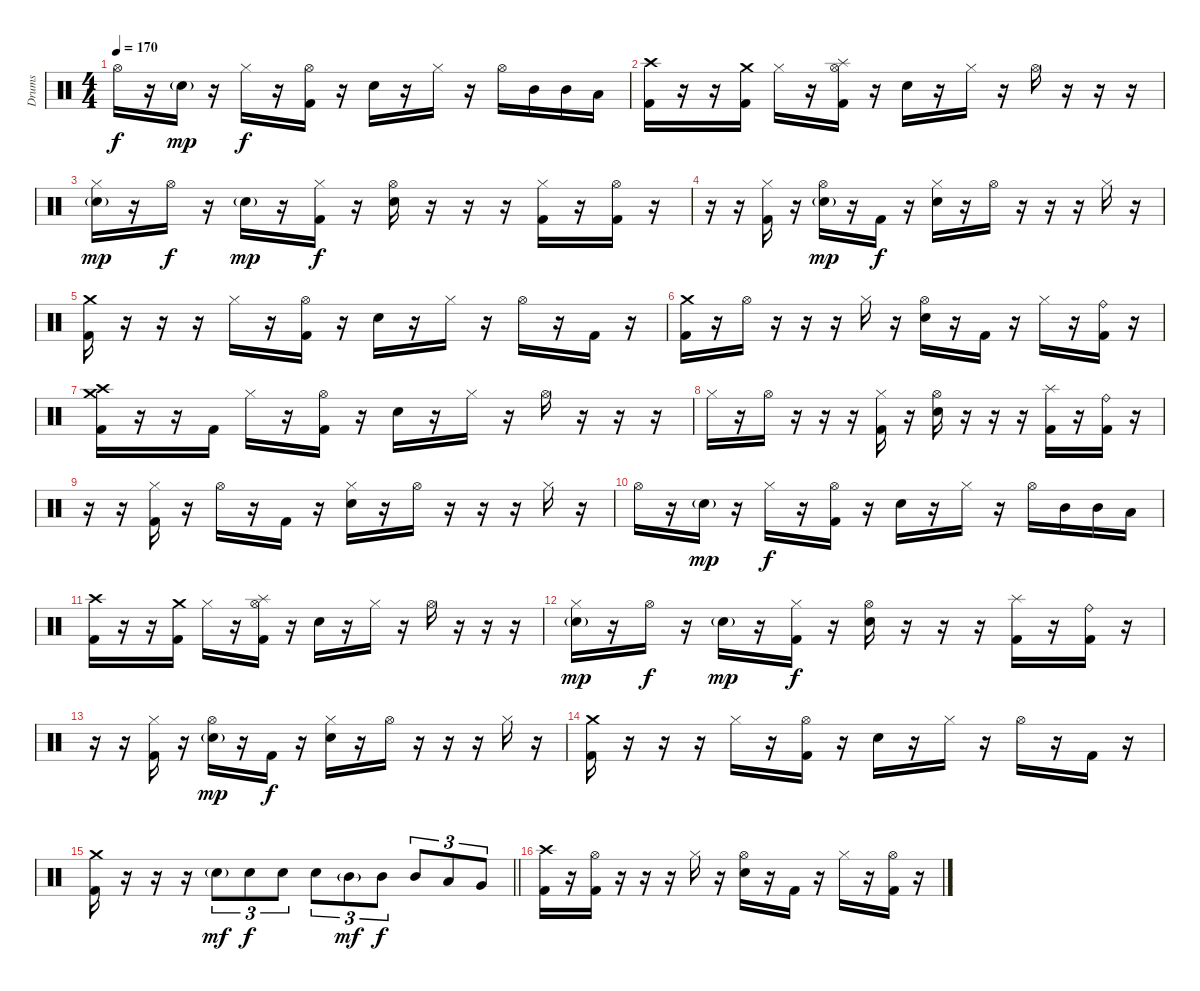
\track ("Drums" "Drums") {instrument percussion}
\staff {score}
\articulation defaults
\ts (4 4)
\tempo 170
\clef neutral
\ks c "Hi-Hat (open)".16{dy f}
r.16 "Electric Snare (hit)"{g}.16{dy mp} r.16 "Hi-Hat (closed)".16{dy f} r.16 ("Hi-Hat (open)" "Kick (hit) 2").16 r.16 "Electric Snare (hit)".16 r.16 "Hi-Hat (closed)".16 r.16 "Hi-Hat (open)".16 "Mid Tom (hit)".16 "Mid Tom (hit)".16 "Low Tom (hit)".16 |
("Crash high (hit)" "Kick (hit) 2").16 r.16 r.16 ("Crash medium (hit)" "Kick (hit) 2").16 "Hi-Hat (closed)".16 r.16 ("Splash (hit)" "Hi-Hat (open)" "Kick (hit) 2").16 r.16 "Electric Snare (hit)".16 r.16 "Hi-Hat (closed)".16 r.16 "Hi-Hat (open)".16 r.16 r.16 r.16 |
("Hi-Hat (closed)" "Electric Snare (hit)"{g}).16{dy mp} r.16 "Hi-Hat (open)".16{dy f} r.16 "Electric Snare (hit)"{g}.16{dy mp} r.16 ("Hi-Hat (closed)" "Kick (hit) 2").16{dy f} r.16 ("Hi-Hat (open)" "Electric Snare (hit)").16 r.16 r.16 r.16 ("Hi-Hat (closed)" "Kick (hit) 2").16 r.16 ("Hi-Hat (open)" "Kick (hit) 2").16 r.16 |
r.16 r.16 ("Hi-Hat (closed)" "Kick (hit) 2").16 r.16 ("Hi-Hat (open)" "Electric Snare (hit)"{g}).16{dy mp} r.16 "Kick (hit) 2".16{dy f} r.16 ("Hi-Hat (closed)" "Electric Snare (hit)").16 r.16 "Hi-Hat (open)".16 r.16 r.16 r.16 "Hi-Hat (closed)".16 r.16 |
("Crash medium (hit)" "Kick (hit) 2").16 r.16 r.16 r.16 "Hi-Hat (closed)".16 r.16 ("Hi-Hat (open)" "Kick (hit) 2").16 r.16 "Electric Snare (hit)".16 r.16 "Hi-Hat (closed)".16 r.16 "Hi-Hat (open)".16 r.16 "Kick (hit) 2".16 r.16 |
("Crash medium (hit)" "Kick (hit) 2").16 r.16 "Hi-Hat (open)".16 r.16 r.16 r.16 "Hi-Hat (closed)".16 r.16 ("Hi-Hat (open)" "Electric Snare (hit)").16 r.16 "Kick (hit) 2".16 r.16 "Hi-Hat (closed)".16 r.16 ("Ride (bell)" "Kick (hit) 2").16 r.16 |
("Crash medium (hit)" "Crash high (hit)" "Kick (hit) 2").16 r.16 r.16 "Kick (hit) 2".16 "Hi-Hat (closed)".16 r.16 ("Hi-Hat (open)" "Kick (hit) 2").16 r.16 "Electric Snare (hit)".16 r.16 "Hi-Hat (closed)".16 r.16 "Hi-Hat (open)".16 r.16 r.16 r.16 |
"Hi-Hat (closed)".16 r.16 "Hi-Hat (open)".16 r.16 r.16 r.16 ("Hi-Hat (closed)" "Kick (hit) 2").16 r.16 ("Hi-Hat (open)" "Electric Snare (hit)").16 r.16 r.16 r.16 ("Splash (hit)" "Kick (hit) 2").16 r.16 ("Ride (bell)" "Kick (hit) 2").16 r.16 |
r.16 r.16 ("Hi-Hat (closed)" "Kick (hit) 2").16 r.16 "Hi-Hat (open)".16 r.16 "Kick (hit) 2".16 r.16 ("Hi-Hat (closed)" "Electric Snare (hit)").16 r.16 "Hi-Hat (open)".16 r.16 r.16 r.16 "Hi-Hat (closed)".16 r.16 |
"Hi-Hat (open)".16 r.16 "Electric Snare (hit)"{g}.16{dy mp} r.16 "Hi-Hat (closed)".16{dy f} r.16 ("Hi-Hat (open)" "Kick (hit) 2").16 r.16 "Electric Snare (hit)".16 r.16 "Hi-Hat (closed)".16 r.16 "Hi-Hat (open)".16 "Mid Tom (hit)".16 "Mid Tom (hit)".16 "Low Tom (hit)".16 |
("Crash high (hit)" "Kick (hit) 2").16 r.16 r.16 ("Crash medium (hit)" "Kick (hit) 2").16 "Hi-Hat (closed)".16 r.16 ("Splash (hit)" "Hi-Hat (open)" "Kick (hit) 2").16 r.16 "Electric Snare (hit)".16 r.16 "Hi-Hat (closed)".16 r.16 "Hi-Hat (open)".16 r.16 r.16 r.16 |
("Hi-Hat (closed)" "Electric Snare (hit)"{g}).16{dy mp} r.16 "Hi-Hat (open)".16{dy f} r.16 "Electric Snare (hit)"{g}.16{dy mp} r.16 ("Hi-Hat (closed)" "Kick (hit) 2").16{dy f} r.16 ("Hi-Hat (open)" "Electric Snare (hit)").16 r.16 r.16 r.16 ("Splash (hit)" "Kick (hit) 2").16 r.16 ("Ride (bell)" "Kick (hit) 2").16 r.16 |
r.16 r.16 ("Hi-Hat (closed)" "Kick (hit) 2").16 r.16 ("Hi-Hat (open)" "Electric Snare (hit)"{g}).16{dy mp} r.16 "Kick (hit) 2".16{dy f} r.16 ("Hi-Hat (closed)" "Electric Snare (hit)").16 r.16 "Hi-Hat (open)".16 r.16 r.16 r.16 "Hi-Hat (closed)".16 r.16 |
("Crash medium (hit)" "Kick (hit) 2").16 r.16 r.16 r.16 "Hi-Hat (closed)".16 r.16 ("Hi-Hat (open)" "Kick (hit) 2").16 r.16 "Electric Snare (hit)".16 r.16 "Hi-Hat (closed)".16 r.16 "Hi-Hat (open)".16 r.16 "Kick (hit) 2".16 r.16 |
\barLineRight lightlight
("Crash medium (hit)" "Kick (hit) 2").16 r.16 r.16 r.16 "Electric Snare (hit)"{g}.8{tu (3 2) dy mf} "Electric Snare (hit)".8{tu (3 2) dy f} "Electric Snare (hit)".8{tu (3 2)} "Electric Snare (hit)".8{tu (3 2)} "Mid Tom (hit)"{g}.8{tu (3 2) dy mf} "Mid Tom (hit)".8{tu (3 2) dy f} "Mid Tom (hit)".8{tu (3 2)} "Low Tom (hit)".8{tu (3 2)} "Very Low Tom (hit)".8{tu (3 2)} |
\section ("" "")
("Crash high (hit)" "Kick (hit) 2").16 r.16 ("Hi-Hat (open)" "Kick (hit) 2").16 r.16 r.16 r.16 "Hi-Hat (closed)".16 r.16 ("Hi-Hat (open)" "Electric Snare (hit)").16 r.16 "Kick (hit) 2".16 r.16 "Hi-Hat (closed)".16 r.16 ("Hi-Hat (open)" "Kick (hit) 2").16 r.16
